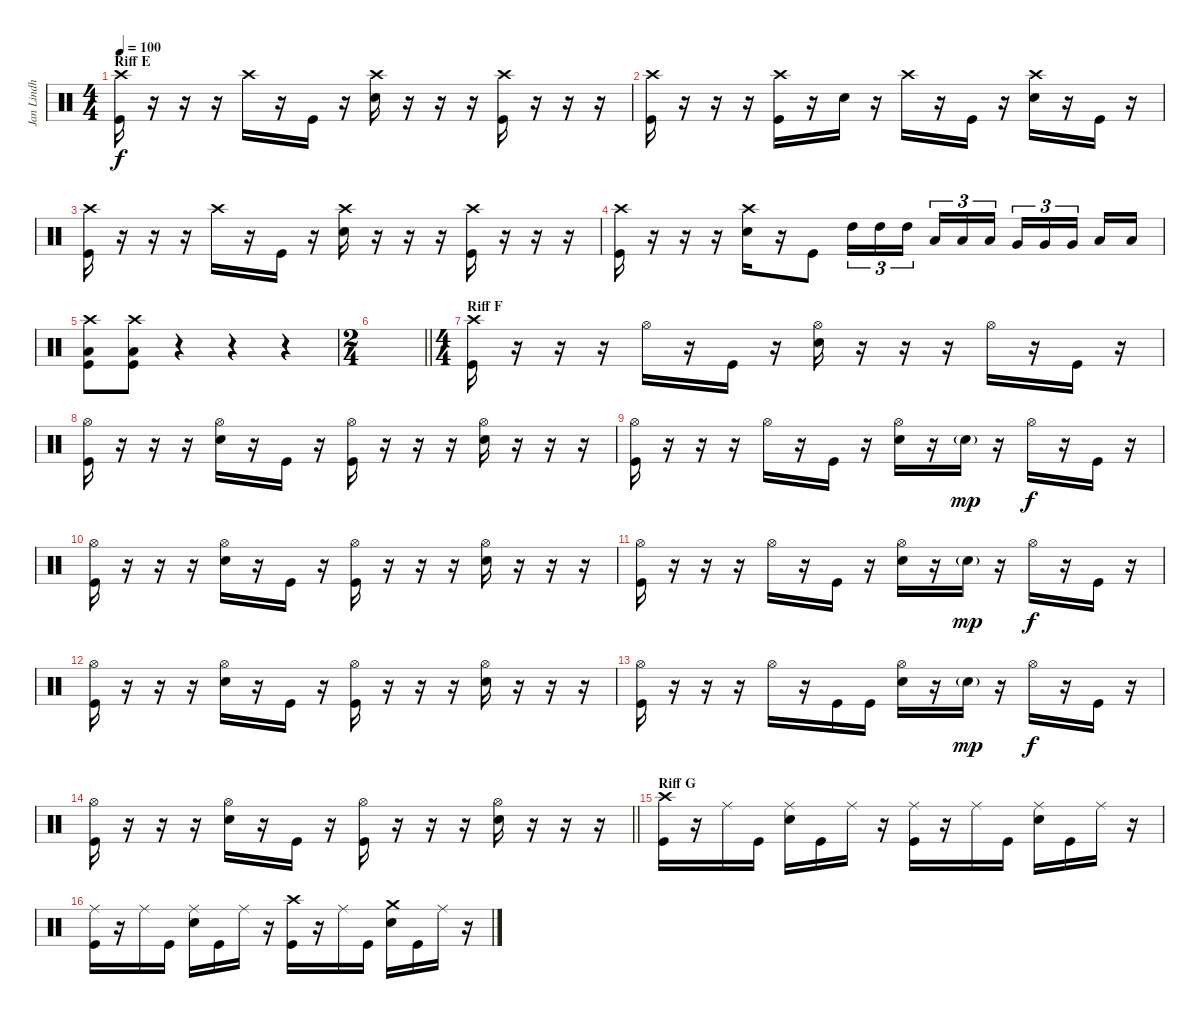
\track ("Jan Lindh" "Jan Lindh") {instrument percussion}
\staff {score}
\articulation defaults
\ts (4 4)
\section ("" "Riff E")
\tempo 100
\clef neutral
\ks c
("Crash high (hit)" "Kick (hit)").16{dy f} r.16 r.16 r.16 "Crash high (hit)".16 r.16 "Kick (hit)".16 r.16 ("Crash high (hit)" "Snare (hit) 2").16 r.16 r.16 r.16 ("Crash high (hit)" "Kick (hit)").16 r.16 r.16 r.16 |
("Crash high (hit)" "Kick (hit)").16 r.16 r.16 r.16 ("Crash high (hit)" "Kick (hit)").16 r.16 "Snare (hit) 2".16 r.16 "Crash high (hit)".16 r.16 "Kick (hit)".16 r.16 ("Crash high (hit)" "Snare (hit) 2").16 r.16 "Kick (hit)".16 r.16 |
("Crash high (hit)" "Kick (hit)").16 r.16 r.16 r.16 "Crash high (hit)".16 r.16 "Kick (hit)".16 r.16 ("Crash high (hit)" "Snare (hit) 2").16 r.16 r.16 r.16 ("Crash high (hit)" "Kick (hit)").16 r.16 r.16 r.16 |
("Crash high (hit)" "Kick (hit)").16 r.16 r.16 r.16 ("Crash high (hit)" "Snare (hit) 2").16 r.16 "Kick (hit)".8 "High Tom (hit)".16{tu (3 2)} "High Tom (hit)".16{tu (3 2)} "High Tom (hit)".16{tu (3 2) beam splitsecondary} "Low Tom (hit)".16{tu (3 2)} "Low Tom (hit)".16{tu (3 2)} "Low Tom (hit)".16{tu (3 2)} "Very Low Tom (hit)".16{tu (3 2)} "Very Low Tom (hit)".16{tu (3 2)} "Very Low Tom (hit)".16{tu (3 2) beam splitsecondary} "Low Floor Tom (hit)".16 "Low Floor Tom (hit)".16 |
("Crash high (hit)" "Low Floor Tom (hit)" "Kick (hit)").8 ("Crash high (hit)" "Low Floor Tom (hit)" "Kick (hit)").8 r.4 r.4 r.4 |
\ts (2 4)
\barLineRight lightlight
|
\ts (4 4)
\section ("" "Riff F")
("Crash high (hit)" "Kick (hit)").16 r.16 r.16 r.16 "Hi-Hat (open)".16 r.16 "Kick (hit)".16 r.16 ("Hi-Hat (open)" "Snare (hit) 2").16 r.16 r.16 r.16 "Hi-Hat (open)".16 r.16 "Kick (hit)".16 r.16 |
("Hi-Hat (open)" "Kick (hit)").16 r.16 r.16 r.16 ("Hi-Hat (open)" "Snare (hit) 2").16 r.16 "Kick (hit)".16 r.16 ("Hi-Hat (open)" "Kick (hit)").16 r.16 r.16 r.16 ("Hi-Hat (open)" "Snare (hit) 2").16 r.16 r.16 r.16 |
("Hi-Hat (open)" "Kick (hit)").16 r.16 r.16 r.16 "Hi-Hat (open)".16 r.16 "Kick (hit)".16 r.16 ("Hi-Hat (open)" "Snare (hit) 2").16 r.16 "Snare (hit) 2"{g}.16{dy mp} r.16 "Hi-Hat (open)".16{dy f} r.16 "Kick (hit)".16 r.16 |
("Hi-Hat (open)" "Kick (hit)").16 r.16 r.16 r.16 ("Hi-Hat (open)" "Snare (hit) 2").16 r.16 "Kick (hit)".16 r.16 ("Hi-Hat (open)" "Kick (hit)").16 r.16 r.16 r.16 ("Hi-Hat (open)" "Snare (hit) 2").16 r.16 r.16 r.16 |
("Hi-Hat (open)" "Kick (hit)").16 r.16 r.16 r.16 "Hi-Hat (open)".16 r.16 "Kick (hit)".16 r.16 ("Hi-Hat (open)" "Snare (hit) 2").16 r.16 "Snare (hit) 2"{g}.16{dy mp} r.16 "Hi-Hat (open)".16{dy f} r.16 "Kick (hit)".16 r.16 |
("Hi-Hat (open)" "Kick (hit)").16 r.16 r.16 r.16 ("Hi-Hat (open)" "Snare (hit) 2").16 r.16 "Kick (hit)".16 r.16 ("Hi-Hat (open)" "Kick (hit)").16 r.16 r.16 r.16 ("Hi-Hat (open)" "Snare (hit) 2").16 r.16 r.16 r.16 |
("Hi-Hat (open)" "Kick (hit)").16 r.16 r.16 r.16 "Hi-Hat (open)".16 r.16 "Kick (hit)".16 "Kick (hit)".16 ("Hi-Hat (open)" "Snare (hit) 2").16 r.16 "Snare (hit) 2"{g}.16{dy mp} r.16 "Hi-Hat (open)".16{dy f} r.16 "Kick (hit)".16 r.16 |
\barLineRight lightlight
("Hi-Hat (open)" "Kick (hit)").16 r.16 r.16 r.16 ("Hi-Hat (open)" "Snare (hit) 2").16 r.16 "Kick (hit)".16 r.16 ("Hi-Hat (open)" "Kick (hit)").16 r.16 r.16 r.16 ("Hi-Hat (open)" "Snare (hit) 2").16 r.16 r.16 r.16 |
\section ("" "Riff G")
("Crash high (hit)" "Kick (hit)").16 r.16 "Ride (middle)".16 "Kick (hit)".16 ("Ride (middle)" "Snare (hit) 2").16 "Kick (hit)".16 "Ride (middle)".16 r.16 ("Ride (middle)" "Kick (hit)").16 r.16 "Ride (middle)".16 "Kick (hit)".16 ("Ride (middle)" "Snare (hit) 2").16 "Kick (hit)".16 "Ride (middle)".16 r.16 |
("Ride (middle)" "Kick (hit)").16 r.16 "Ride (middle)".16 "Kick (hit)".16 ("Ride (middle)" "Snare (hit) 2").16 "Kick (hit)".16 "Ride (middle)".16 r.16 ("Crash high (hit)" "Kick (hit)").16 r.16 "Ride (middle)".16 "Kick (hit)".16 ("Crash medium (hit)" "Snare (hit) 2").16 "Kick (hit)".16 "Ride (middle)".16 r.16
